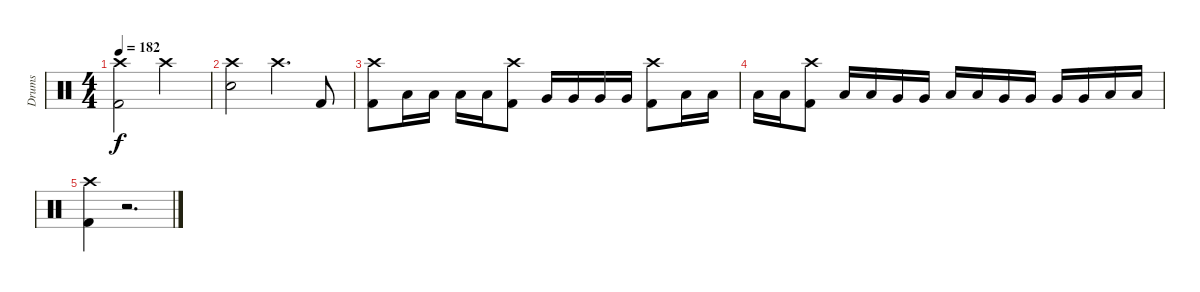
\track ("Drums" "Drums") {instrument percussion}
\staff {score}
\articulation defaults
\ts (4 4)
\tempo 182
\clef neutral
\ks c
("Crash high (hit)" "Kick (hit) 2").2{dy f} "Crash high (hit)".2 |
("Crash high (hit)" "Electric Snare (hit)").2 "Crash high (hit)".4{d} "Kick (hit) 2".8 |
("Crash high (hit)" "Kick (hit) 2").8 "Low Tom (hit)".16 "Low Tom (hit)".16 "Low Tom (hit)".16 "Low Tom (hit)".16 ("Crash high (hit)" "Kick (hit) 2").8 "Very Low Tom (hit)".16 "Very Low Tom (hit)".16 "Very Low Tom (hit)".16 "Very Low Tom (hit)".16 ("Crash high (hit)" "Kick (hit) 2").8 "Low Floor Tom (hit)".16 "Low Floor Tom (hit)".16 |
"Low Floor Tom (hit)".16 "Low Floor Tom (hit)".16 ("Crash high (hit)" "Kick (hit) 2").8 "Low Tom (hit)".16 "Low Tom (hit)".16 "Very Low Tom (hit)".16 "Very Low Tom (hit)".16 "Low Tom (hit)".16 "Low Tom (hit)".16 "Very Low Tom (hit)".16 "Very Low Tom (hit)".16 "Very Low Tom (hit)".16 "Very Low Tom (hit)".16 "Low Floor Tom (hit)".16 "Low Floor Tom (hit)".16 |
("Crash high (hit)" "Kick (hit) 2").4 r.2{d volume 0}
